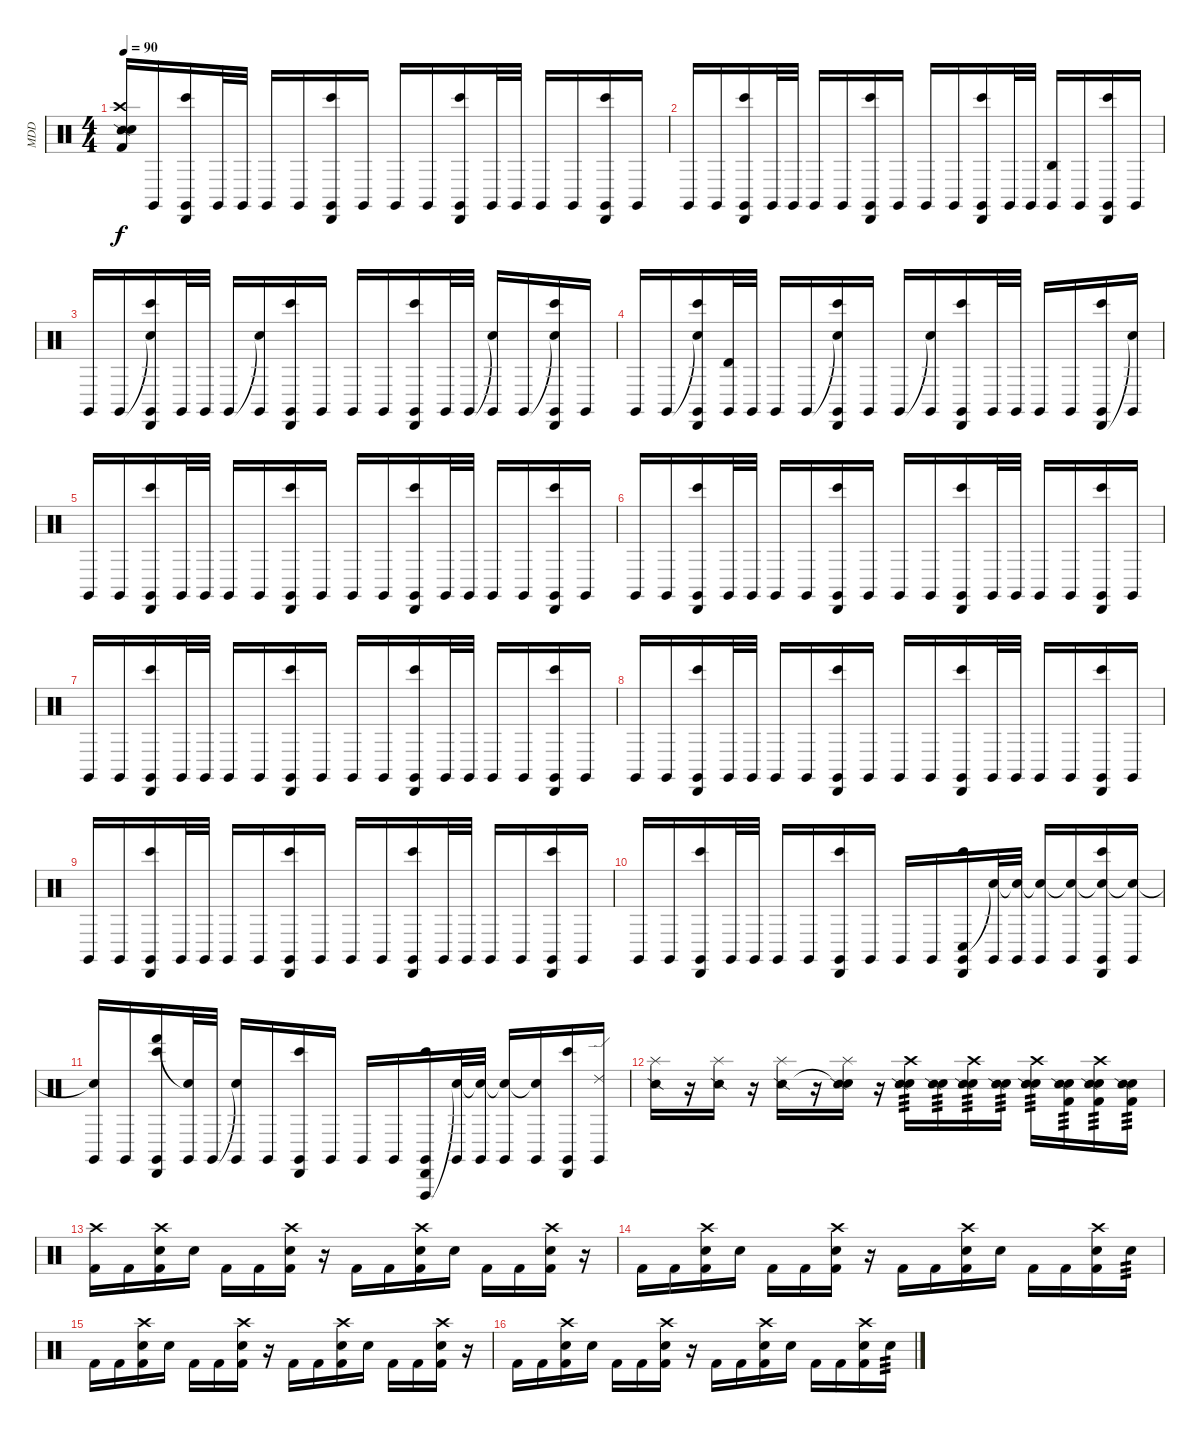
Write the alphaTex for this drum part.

\track ("MDD" "MDD") {instrument percussion}
\staff {score}
\articulation defaults
\ts (4 4)
\tempo 90
\clef neutral
\ks c
("Crash high (hit)" "Kick (hit) 2" "Snare (side stick) 2" "Snare (hit) 2").16{dy f} "Claves (hit)".16 ("Cabasa (hit)" "Claves (hit)" "Bongo High (hit)").16 "Claves (hit)".32 "Claves (hit)".32 "Claves (hit)".16 "Claves (hit)".16 ("Cabasa (hit)" "Claves (hit)" "Bongo High (hit)").16 "Claves (hit)".16 "Claves (hit)".16 "Claves (hit)".16 ("Cabasa (hit)" "Claves (hit)" "Bongo High (hit)").16 "Claves (hit)".32 "Claves (hit)".32 "Claves (hit)".16 "Claves (hit)".16 ("Cabasa (hit)" "Claves (hit)" "Bongo High (hit)").16 "Claves (hit)".16 |
"Claves (hit)".16 "Claves (hit)".16 ("Cabasa (hit)" "Claves (hit)" "Bongo High (hit)").16 "Claves (hit)".32 "Claves (hit)".32 "Claves (hit)".16 "Claves (hit)".16 ("Cabasa (hit)" "Claves (hit)" "Bongo High (hit)").16 "Claves (hit)".16 "Claves (hit)".16 "Claves (hit)".16 ("Cabasa (hit)" "Claves (hit)" "Bongo High (hit)").16 "Claves (hit)".32 "Claves (hit)".32 ("Agogo high (hit)" "Claves (hit)").16 "Claves (hit)".16 ("Cabasa (hit)" "Claves (hit)" "Bongo High (hit)").16 "Claves (hit)".16 |
"Claves (hit)".16 "Claves (hit)".16 ("Snare (hit)"{t} "Cabasa (hit)" "Claves (hit)" "Bongo High (hit)").16 "Claves (hit)".32 "Claves (hit)".32 "Claves (hit)".16 ("Snare (hit)"{t} "Claves (hit)").16 ("Cabasa (hit)" "Claves (hit)" "Bongo High (hit)").16 "Claves (hit)".16 "Claves (hit)".16 "Claves (hit)".16 ("Cabasa (hit)" "Claves (hit)" "Bongo High (hit)").16 "Claves (hit)".32 "Claves (hit)".32 ("Snare (hit)"{t} "Claves (hit)").16 "Claves (hit)".16 ("Snare (hit)"{t} "Cabasa (hit)" "Claves (hit)" "Bongo High (hit)").16 "Claves (hit)".16 |
"Claves (hit)".16 "Claves (hit)".16 ("Snare (hit)"{t} "Cabasa (hit)" "Claves (hit)" "Bongo High (hit)").16 ("Timbale high (hit)" "Claves (hit)").32 "Claves (hit)".32 "Claves (hit)".16 "Claves (hit)".16 ("Snare (hit)"{t} "Cabasa (hit)" "Claves (hit)" "Bongo High (hit)").16 "Claves (hit)".16 "Claves (hit)".16 ("Snare (hit)"{t} "Claves (hit)").16 ("Cabasa (hit)" "Claves (hit)" "Bongo High (hit)").16 "Claves (hit)".32 "Claves (hit)".32 "Claves (hit)".16 "Claves (hit)".16 ("Cabasa (hit)" "Claves (hit)" "Bongo High (hit)").16 ("Snare (hit)"{t} "Claves (hit)").16 |
"Claves (hit)".16 "Claves (hit)".16 ("Cabasa (hit)" "Claves (hit)" "Bongo High (hit)").16 "Claves (hit)".32 "Claves (hit)".32 "Claves (hit)".16 "Claves (hit)".16 ("Cabasa (hit)" "Claves (hit)" "Bongo High (hit)").16 "Claves (hit)".16 "Claves (hit)".16 "Claves (hit)".16 ("Cabasa (hit)" "Claves (hit)" "Bongo High (hit)").16 "Claves (hit)".32 "Claves (hit)".32 "Claves (hit)".16 "Claves (hit)".16 ("Cabasa (hit)" "Claves (hit)" "Bongo High (hit)").16 "Claves (hit)".16 |
"Claves (hit)".16 "Claves (hit)".16 ("Cabasa (hit)" "Claves (hit)" "Bongo High (hit)").16 "Claves (hit)".32 "Claves (hit)".32 "Claves (hit)".16 "Claves (hit)".16 ("Cabasa (hit)" "Claves (hit)" "Bongo High (hit)").16 "Claves (hit)".16 "Claves (hit)".16 "Claves (hit)".16 ("Cabasa (hit)" "Claves (hit)" "Bongo High (hit)").16 "Claves (hit)".32 "Claves (hit)".32 "Claves (hit)".16 "Claves (hit)".16 ("Cabasa (hit)" "Claves (hit)" "Bongo High (hit)").16 "Claves (hit)".16 |
"Claves (hit)".16 "Claves (hit)".16 ("Cabasa (hit)" "Claves (hit)" "Bongo High (hit)").16 "Claves (hit)".32 "Claves (hit)".32 "Claves (hit)".16 "Claves (hit)".16 ("Cabasa (hit)" "Claves (hit)" "Bongo High (hit)").16 "Claves (hit)".16 "Claves (hit)".16 "Claves (hit)".16 ("Cabasa (hit)" "Claves (hit)" "Bongo High (hit)").16 "Claves (hit)".32 "Claves (hit)".32 "Claves (hit)".16 "Claves (hit)".16 ("Cabasa (hit)" "Claves (hit)" "Bongo High (hit)").16 "Claves (hit)".16 |
"Claves (hit)".16 "Claves (hit)".16 ("Cabasa (hit)" "Claves (hit)" "Bongo High (hit)").16 "Claves (hit)".32 "Claves (hit)".32 "Claves (hit)".16 "Claves (hit)".16 ("Cabasa (hit)" "Claves (hit)" "Bongo High (hit)").16 "Claves (hit)".16 "Claves (hit)".16 "Claves (hit)".16 ("Cabasa (hit)" "Claves (hit)" "Bongo High (hit)").16 "Claves (hit)".32 "Claves (hit)".32 "Claves (hit)".16 "Claves (hit)".16 ("Cabasa (hit)" "Claves (hit)" "Bongo High (hit)").16 "Claves (hit)".16 |
"Claves (hit)".16 "Claves (hit)".16 ("Cabasa (hit)" "Claves (hit)" "Bongo High (hit)").16 "Claves (hit)".32 "Claves (hit)".32 "Claves (hit)".16 "Claves (hit)".16 ("Cabasa (hit)" "Claves (hit)" "Bongo High (hit)").16 "Claves (hit)".16 "Claves (hit)".16 "Claves (hit)".16 ("Cabasa (hit)" "Claves (hit)" "Bongo High (hit)").16 "Claves (hit)".32 "Claves (hit)".32 "Claves (hit)".16 "Claves (hit)".16 ("Cabasa (hit)" "Claves (hit)" "Bongo High (hit)").16 "Claves (hit)".16 |
"Claves (hit)".16 "Claves (hit)".16 ("Cabasa (hit)" "Claves (hit)" "Bongo High (hit)").16 "Claves (hit)".32 "Claves (hit)".32 "Claves (hit)".16 "Claves (hit)".16 ("Cabasa (hit)" "Claves (hit)" "Bongo High (hit)").16 "Claves (hit)".16 "Claves (hit)".16 "Claves (hit)".16 ("Conga low (hit)" "Cabasa (hit)" "Claves (hit)" "Bongo High (hit)").16 ("Snare (hit)"{t} "Claves (hit)").32 ("Snare (hit)"{t} "Claves (hit)").32 ("Snare (hit)"{t} "Claves (hit)").16 ("Snare (hit)"{t} "Claves (hit)").16 ("Snare (hit)"{t} "Cabasa (hit)" "Claves (hit)" "Bongo High (hit)").16 ("Snare (hit)"{t} "Claves (hit)").16 |
("Snare (hit)"{t} "Claves (hit)").16 "Claves (hit)".16 ("Hand (hit)" "Cabasa (hit)" "Claves (hit)" "Bongo High (hit)").16 ("Snare (hit)"{t} "Claves (hit)").32 "Claves (hit)".32 ("Snare (hit)"{t} "Claves (hit)").16 "Claves (hit)".16 ("Cabasa (hit)" "Claves (hit)" "Bongo High (hit)").16 "Claves (hit)".16 "Claves (hit)".16 "Claves (hit)".16 ("Vibraslap (hit)" "Cabasa (hit)" "Claves (hit)" "Bongo High (hit)").16 ("Snare (hit)"{t} "Claves (hit)").32 ("Snare (hit)"{t} "Claves (hit)").32 ("Snare (hit)"{t} "Claves (hit)").16 ("Snare (hit)"{t} "Claves (hit)").16 ("Cabasa (hit)" "Claves (hit)" "Bongo High (hit)").16 ("Ride (edge) 2" "Claves (hit)").16 |
("Splash (hit)" "Snare (side stick) 2").16 r.16 ("Splash (hit)" "Snare (side stick) 2").16 r.16 ("Splash (hit)" "Snare (side stick) 2").16 r.16 ("Splash (hit)" "Snare (hit)"{t} "Snare (side stick) 2").16 r.16 ("Crash high (hit)" "Snare (hit) 2" "Snare (side stick) 2").16{tp 3} ("Snare (hit) 2" "Snare (side stick) 2").16{tp 3} ("Crash high (hit)" "Snare (hit) 2" "Snare (side stick) 2").16{tp 3} ("Snare (hit) 2" "Snare (side stick) 2").16{tp 3} ("Crash high (hit)" "Snare (hit) 2" "Snare (side stick) 2").16{tp 3} ("Kick (hit) 2" "Snare (hit) 2" "Snare (side stick) 2").16{tp 3} ("Crash high (hit)" "Kick (hit) 2" "Snare (hit) 2" "Snare (side stick) 2").16{tp 3} ("Kick (hit) 2" "Snare (hit) 2" "Snare (side stick) 2").16{tp 3} |
("Crash high (hit)" "Kick (hit) 2").16 "Kick (hit) 2".16 ("Crash high (hit)" "Kick (hit) 2" "Snare (hit) 2").16 "Snare (hit) 2".16 "Kick (hit) 2".16 "Kick (hit) 2".16 ("Crash high (hit)" "Kick (hit) 2" "Snare (hit) 2").16 r.16 "Kick (hit) 2".16 "Kick (hit) 2".16 ("Crash high (hit)" "Kick (hit) 2" "Snare (hit) 2").16 "Snare (hit) 2".16 "Kick (hit) 2".16 "Kick (hit) 2".16 ("Crash high (hit)" "Kick (hit) 2" "Snare (hit) 2").16 r.16 |
"Kick (hit) 2".16 "Kick (hit) 2".16 ("Crash high (hit)" "Kick (hit) 2" "Snare (hit) 2").16 "Snare (hit) 2".16 "Kick (hit) 2".16 "Kick (hit) 2".16 ("Crash high (hit)" "Kick (hit) 2" "Snare (hit) 2").16 r.16 "Kick (hit) 2".16 "Kick (hit) 2".16 ("Crash high (hit)" "Kick (hit) 2" "Snare (hit) 2").16 "Snare (hit) 2".16 "Kick (hit) 2".16 "Kick (hit) 2".16 ("Crash high (hit)" "Kick (hit) 2" "Snare (hit) 2").16 "Snare (hit) 2".16{tp 3} |
"Kick (hit) 2".16 "Kick (hit) 2".16 ("Crash high (hit)" "Kick (hit) 2" "Snare (hit) 2").16 "Snare (hit) 2".16 "Kick (hit) 2".16 "Kick (hit) 2".16 ("Crash high (hit)" "Kick (hit) 2" "Snare (hit) 2").16 r.16 "Kick (hit) 2".16 "Kick (hit) 2".16 ("Crash high (hit)" "Kick (hit) 2" "Snare (hit) 2").16 "Snare (hit) 2".16 "Kick (hit) 2".16 "Kick (hit) 2".16 ("Crash high (hit)" "Kick (hit) 2" "Snare (hit) 2").16 r.16 |
"Kick (hit) 2".16 "Kick (hit) 2".16 ("Crash high (hit)" "Kick (hit) 2" "Snare (hit) 2").16 "Snare (hit) 2".16 "Kick (hit) 2".16 "Kick (hit) 2".16 ("Crash high (hit)" "Kick (hit) 2" "Snare (hit) 2").16 r.16 "Kick (hit) 2".16 "Kick (hit) 2".16 ("Crash high (hit)" "Kick (hit) 2" "Snare (hit) 2").16 "Snare (hit) 2".16 "Kick (hit) 2".16 "Kick (hit) 2".16 ("Crash high (hit)" "Kick (hit) 2" "Snare (hit) 2").16 "Snare (hit) 2".16{tp 3}
